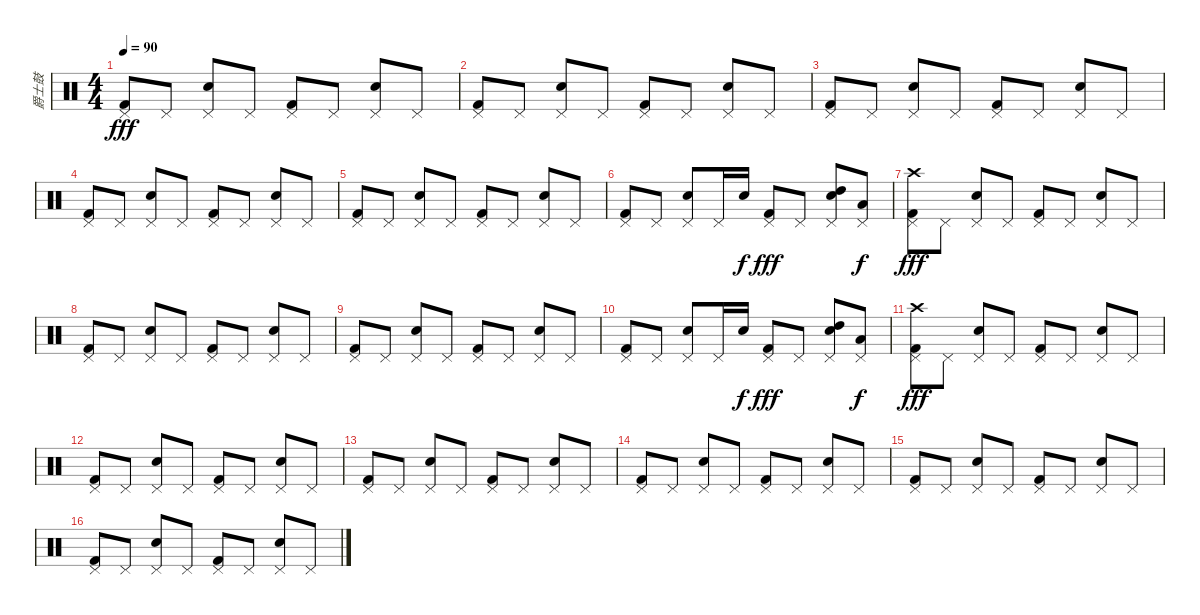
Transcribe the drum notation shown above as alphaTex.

\track ("爵士鼓" "爵士鼓") {instrument percussion}
\staff {score}
\articulation defaults
\ts (4 4)
\tempo 90
\clef neutral
\ks c
("Pedal Hi-Hat (hit)" "Kick (hit) 2").8{dy fff} "Pedal Hi-Hat (hit)".8 ("Pedal Hi-Hat (hit)" "Electric Snare (hit)").8 "Pedal Hi-Hat (hit)".8 ("Pedal Hi-Hat (hit)" "Kick (hit) 2").8 "Pedal Hi-Hat (hit)".8 ("Pedal Hi-Hat (hit)" "Electric Snare (hit)").8 "Pedal Hi-Hat (hit)".8 |
("Pedal Hi-Hat (hit)" "Kick (hit) 2").8 "Pedal Hi-Hat (hit)".8 ("Pedal Hi-Hat (hit)" "Electric Snare (hit)").8 "Pedal Hi-Hat (hit)".8 ("Pedal Hi-Hat (hit)" "Kick (hit) 2").8 "Pedal Hi-Hat (hit)".8 ("Pedal Hi-Hat (hit)" "Electric Snare (hit)").8 "Pedal Hi-Hat (hit)".8 |
("Pedal Hi-Hat (hit)" "Kick (hit) 2").8 "Pedal Hi-Hat (hit)".8 ("Pedal Hi-Hat (hit)" "Electric Snare (hit)").8 "Pedal Hi-Hat (hit)".8 ("Pedal Hi-Hat (hit)" "Kick (hit) 2").8 "Pedal Hi-Hat (hit)".8 ("Pedal Hi-Hat (hit)" "Electric Snare (hit)").8 "Pedal Hi-Hat (hit)".8 |
("Pedal Hi-Hat (hit)" "Kick (hit) 2").8 "Pedal Hi-Hat (hit)".8 ("Pedal Hi-Hat (hit)" "Electric Snare (hit)").8 "Pedal Hi-Hat (hit)".8 ("Pedal Hi-Hat (hit)" "Kick (hit) 2").8 "Pedal Hi-Hat (hit)".8 ("Pedal Hi-Hat (hit)" "Electric Snare (hit)").8 "Pedal Hi-Hat (hit)".8 |
("Pedal Hi-Hat (hit)" "Kick (hit) 2").8 "Pedal Hi-Hat (hit)".8 ("Pedal Hi-Hat (hit)" "Electric Snare (hit)").8 "Pedal Hi-Hat (hit)".8 ("Pedal Hi-Hat (hit)" "Kick (hit) 2").8 "Pedal Hi-Hat (hit)".8 ("Pedal Hi-Hat (hit)" "Electric Snare (hit)").8 "Pedal Hi-Hat (hit)".8 |
("Pedal Hi-Hat (hit)" "Kick (hit) 2").8 "Pedal Hi-Hat (hit)".8 ("Pedal Hi-Hat (hit)" "Electric Snare (hit)").8 "Pedal Hi-Hat (hit)".16 "Electric Snare (hit)".16{dy f} ("Pedal Hi-Hat (hit)" "Kick (hit) 2").8{dy fff} "Pedal Hi-Hat (hit)".8 ("Pedal Hi-Hat (hit)" "Electric Snare (hit)" "High Tom (hit)").8 ("Pedal Hi-Hat (hit)" "Low Tom (hit)").8{dy f} |
("Pedal Hi-Hat (hit)" "Crash high (hit)" "Kick (hit) 2").8{dy fff} "Pedal Hi-Hat (hit)".8 ("Pedal Hi-Hat (hit)" "Electric Snare (hit)").8 "Pedal Hi-Hat (hit)".8 ("Pedal Hi-Hat (hit)" "Kick (hit) 2").8 "Pedal Hi-Hat (hit)".8 ("Pedal Hi-Hat (hit)" "Electric Snare (hit)").8 "Pedal Hi-Hat (hit)".8 |
("Pedal Hi-Hat (hit)" "Kick (hit) 2").8 "Pedal Hi-Hat (hit)".8 ("Pedal Hi-Hat (hit)" "Electric Snare (hit)").8 "Pedal Hi-Hat (hit)".8 ("Pedal Hi-Hat (hit)" "Kick (hit) 2").8 "Pedal Hi-Hat (hit)".8 ("Pedal Hi-Hat (hit)" "Electric Snare (hit)").8 "Pedal Hi-Hat (hit)".8 |
("Pedal Hi-Hat (hit)" "Kick (hit) 2").8 "Pedal Hi-Hat (hit)".8 ("Pedal Hi-Hat (hit)" "Electric Snare (hit)").8 "Pedal Hi-Hat (hit)".8 ("Pedal Hi-Hat (hit)" "Kick (hit) 2").8 "Pedal Hi-Hat (hit)".8 ("Pedal Hi-Hat (hit)" "Electric Snare (hit)").8 "Pedal Hi-Hat (hit)".8 |
("Pedal Hi-Hat (hit)" "Kick (hit) 2").8 "Pedal Hi-Hat (hit)".8 ("Pedal Hi-Hat (hit)" "Electric Snare (hit)").8 "Pedal Hi-Hat (hit)".16 "Electric Snare (hit)".16{dy f} ("Pedal Hi-Hat (hit)" "Kick (hit) 2").8{dy fff} "Pedal Hi-Hat (hit)".8 ("Pedal Hi-Hat (hit)" "Electric Snare (hit)" "High Tom (hit)").8 ("Pedal Hi-Hat (hit)" "Low Tom (hit)").8{dy f} |
("Pedal Hi-Hat (hit)" "Crash high (hit)" "Kick (hit) 2").8{dy fff} "Pedal Hi-Hat (hit)".8 ("Pedal Hi-Hat (hit)" "Electric Snare (hit)").8 "Pedal Hi-Hat (hit)".8 ("Pedal Hi-Hat (hit)" "Kick (hit) 2").8 "Pedal Hi-Hat (hit)".8 ("Pedal Hi-Hat (hit)" "Electric Snare (hit)").8 "Pedal Hi-Hat (hit)".8 |
("Pedal Hi-Hat (hit)" "Kick (hit) 2").8 "Pedal Hi-Hat (hit)".8 ("Pedal Hi-Hat (hit)" "Electric Snare (hit)").8 "Pedal Hi-Hat (hit)".8 ("Pedal Hi-Hat (hit)" "Kick (hit) 2").8 "Pedal Hi-Hat (hit)".8 ("Pedal Hi-Hat (hit)" "Electric Snare (hit)").8 "Pedal Hi-Hat (hit)".8 |
("Pedal Hi-Hat (hit)" "Kick (hit) 2").8 "Pedal Hi-Hat (hit)".8 ("Pedal Hi-Hat (hit)" "Electric Snare (hit)").8 "Pedal Hi-Hat (hit)".8 ("Pedal Hi-Hat (hit)" "Kick (hit) 2").8 "Pedal Hi-Hat (hit)".8 ("Pedal Hi-Hat (hit)" "Electric Snare (hit)").8 "Pedal Hi-Hat (hit)".8 |
("Pedal Hi-Hat (hit)" "Kick (hit) 2").8 "Pedal Hi-Hat (hit)".8 ("Pedal Hi-Hat (hit)" "Electric Snare (hit)").8 "Pedal Hi-Hat (hit)".8 ("Pedal Hi-Hat (hit)" "Kick (hit) 2").8 "Pedal Hi-Hat (hit)".8 ("Pedal Hi-Hat (hit)" "Electric Snare (hit)").8 "Pedal Hi-Hat (hit)".8 |
("Pedal Hi-Hat (hit)" "Kick (hit) 2").8 "Pedal Hi-Hat (hit)".8 ("Pedal Hi-Hat (hit)" "Electric Snare (hit)").8 "Pedal Hi-Hat (hit)".8 ("Pedal Hi-Hat (hit)" "Kick (hit) 2").8 "Pedal Hi-Hat (hit)".8 ("Pedal Hi-Hat (hit)" "Electric Snare (hit)").8 "Pedal Hi-Hat (hit)".8 |
("Pedal Hi-Hat (hit)" "Kick (hit) 2").8 "Pedal Hi-Hat (hit)".8 ("Pedal Hi-Hat (hit)" "Electric Snare (hit)").8 "Pedal Hi-Hat (hit)".8 ("Pedal Hi-Hat (hit)" "Kick (hit) 2").8 "Pedal Hi-Hat (hit)".8 ("Pedal Hi-Hat (hit)" "Electric Snare (hit)").8 "Pedal Hi-Hat (hit)".8
